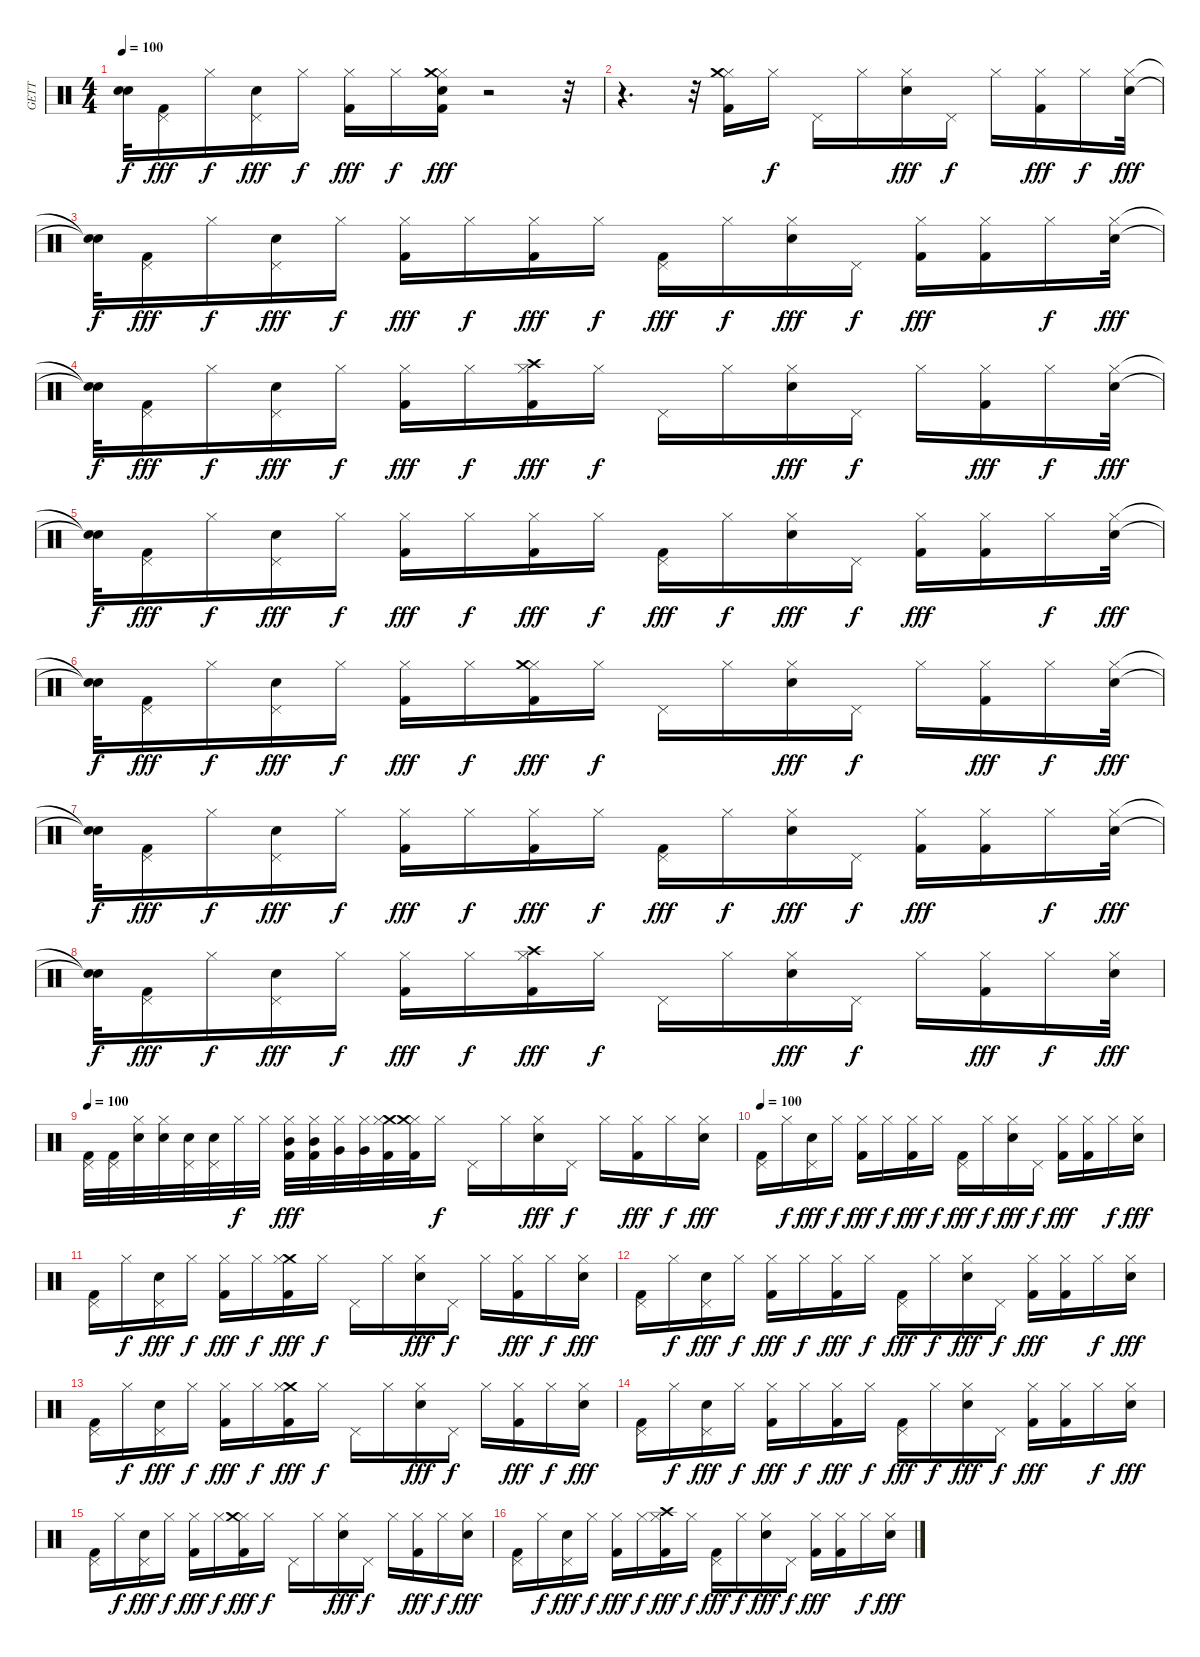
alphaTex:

\track ("GETT" "GETT") {instrument percussion}
\staff {score}
\articulation defaults
\ts (4 4)
\tempo 100
\clef neutral
\ks c
("Snare (hit)"{t} "Snare (hit)"{t}).32{dy f} ("Pedal Hi-Hat (hit)" "Kick (hit) 2").16{dy fff} "Hi-Hat (closed)".16{dy f} ("Snare (hit) 2" "Pedal Hi-Hat (hit)").16{dy fff} "Hi-Hat (closed)".16{dy f} ("Kick (hit) 2" "Hi-Hat (closed)").16{dy fff} "Hi-Hat (closed)".16{dy f} ("Hi-Hat (closed)" "Kick (hit) 2" "Crash medium (hit)" "Snare (hit) 2").16{dy fff} r.2 r.32 |
r.4{d} r.32 ("Hi-Hat (closed)" "Crash medium (hit)" "Kick (hit) 2").16 "Hi-Hat (closed)".16{dy f} "Pedal Hi-Hat (hit)".16 "Hi-Hat (closed)".16 ("Hi-Hat (closed)" "Snare (hit) 2").16{dy fff} "Pedal Hi-Hat (hit)".16{dy f} "Hi-Hat (closed)".16 ("Hi-Hat (closed)" "Kick (hit) 2").16{dy fff} "Hi-Hat (closed)".16{dy f} ("Hi-Hat (closed)" "Snare (hit) 2").32{dy fff} |
("Snare (hit)"{t} "Snare (hit)"{t}).32{dy f} ("Pedal Hi-Hat (hit)" "Kick (hit) 2").16{dy fff} "Hi-Hat (closed)".16{dy f} ("Pedal Hi-Hat (hit)" "Snare (hit) 2").16{dy fff} "Hi-Hat (closed)".16{dy f} ("Hi-Hat (closed)" "Kick (hit) 2").16{dy fff} "Hi-Hat (closed)".16{dy f} ("Kick (hit) 2" "Hi-Hat (closed)").16{dy fff} "Hi-Hat (closed)".16{dy f} ("Pedal Hi-Hat (hit)" "Kick (hit) 2").16{dy fff} "Hi-Hat (closed)".16{dy f} ("Hi-Hat (closed)" "Snare (hit) 2").16{dy fff} "Pedal Hi-Hat (hit)".16{dy f} ("Hi-Hat (closed)" "Kick (hit) 2").16{dy fff} ("Hi-Hat (closed)" "Kick (hit) 2").16 "Hi-Hat (closed)".16{dy f} ("Hi-Hat (closed)" "Snare (hit) 2").32{dy fff} |
("Snare (hit)"{t} "Snare (hit)"{t}).32{dy f} ("Pedal Hi-Hat (hit)" "Kick (hit) 2").16{dy fff} "Hi-Hat (closed)".16{dy f} ("Pedal Hi-Hat (hit)" "Snare (hit) 2").16{dy fff} "Hi-Hat (closed)".16{dy f} ("Hi-Hat (closed)" "Kick (hit) 2").16{dy fff} "Hi-Hat (closed)".16{dy f} ("Hi-Hat (closed)" "Crash high (hit)" "Kick (hit) 2").16{dy fff} "Hi-Hat (closed)".16{dy f} "Pedal Hi-Hat (hit)".16 "Hi-Hat (closed)".16 ("Hi-Hat (closed)" "Snare (hit) 2").16{dy fff} "Pedal Hi-Hat (hit)".16{dy f} "Hi-Hat (closed)".16 ("Hi-Hat (closed)" "Kick (hit) 2").16{dy fff} "Hi-Hat (closed)".16{dy f} ("Hi-Hat (closed)" "Snare (hit) 2").32{dy fff} |
("Snare (hit)"{t} "Snare (hit)"{t}).32{dy f} ("Pedal Hi-Hat (hit)" "Kick (hit) 2").16{dy fff} "Hi-Hat (closed)".16{dy f} ("Pedal Hi-Hat (hit)" "Snare (hit) 2").16{dy fff} "Hi-Hat (closed)".16{dy f} ("Hi-Hat (closed)" "Kick (hit) 2").16{dy fff} "Hi-Hat (closed)".16{dy f} ("Kick (hit) 2" "Hi-Hat (closed)").16{dy fff} "Hi-Hat (closed)".16{dy f} ("Kick (hit) 2" "Pedal Hi-Hat (hit)").16{dy fff} "Hi-Hat (closed)".16{dy f} ("Snare (hit) 2" "Hi-Hat (closed)").16{dy fff} "Pedal Hi-Hat (hit)".16{dy f} ("Hi-Hat (closed)" "Kick (hit) 2").16{dy fff} ("Kick (hit) 2" "Hi-Hat (closed)").16 "Hi-Hat (closed)".16{dy f} ("Hi-Hat (closed)" "Snare (hit) 2").32{dy fff} |
("Snare (hit)"{t} "Snare (hit)"{t}).32{dy f} ("Pedal Hi-Hat (hit)" "Kick (hit) 2").16{dy fff} "Hi-Hat (closed)".16{dy f} ("Pedal Hi-Hat (hit)" "Snare (hit) 2").16{dy fff} "Hi-Hat (closed)".16{dy f} ("Kick (hit) 2" "Hi-Hat (closed)").16{dy fff} "Hi-Hat (closed)".16{dy f} ("Hi-Hat (closed)" "Kick (hit) 2" "Crash medium (hit)").16{dy fff} "Hi-Hat (closed)".16{dy f} "Pedal Hi-Hat (hit)".16 "Hi-Hat (closed)".16 ("Hi-Hat (closed)" "Snare (hit) 2").16{dy fff} "Pedal Hi-Hat (hit)".16{dy f} "Hi-Hat (closed)".16 ("Kick (hit) 2" "Hi-Hat (closed)").16{dy fff} "Hi-Hat (closed)".16{dy f} ("Snare (hit) 2" "Hi-Hat (closed)").32{dy fff} |
("Snare (hit)"{t} "Snare (hit)"{t}).32{dy f} ("Pedal Hi-Hat (hit)" "Kick (hit) 2").16{dy fff} "Hi-Hat (closed)".16{dy f} ("Pedal Hi-Hat (hit)" "Snare (hit) 2").16{dy fff} "Hi-Hat (closed)".16{dy f} ("Hi-Hat (closed)" "Kick (hit) 2").16{dy fff} "Hi-Hat (closed)".16{dy f} ("Hi-Hat (closed)" "Kick (hit) 2").16{dy fff} "Hi-Hat (closed)".16{dy f} ("Pedal Hi-Hat (hit)" "Kick (hit) 2").16{dy fff} "Hi-Hat (closed)".16{dy f} ("Snare (hit) 2" "Hi-Hat (closed)").16{dy fff} "Pedal Hi-Hat (hit)".16{dy f} ("Hi-Hat (closed)" "Kick (hit) 2").16{dy fff} ("Kick (hit) 2" "Hi-Hat (closed)").16 "Hi-Hat (closed)".16{dy f} ("Snare (hit) 2" "Hi-Hat (closed)").32{dy fff} |
("Snare (hit)"{t} "Snare (hit)"{t}).32{dy f} ("Pedal Hi-Hat (hit)" "Kick (hit) 2").16{dy fff} "Hi-Hat (closed)".16{dy f} ("Snare (hit) 2" "Pedal Hi-Hat (hit)").16{dy fff} "Hi-Hat (closed)".16{dy f} ("Kick (hit) 2" "Hi-Hat (closed)").16{dy fff} "Hi-Hat (closed)".16{dy f} ("Hi-Hat (closed)" "Kick (hit) 2" "Crash high (hit)").16{dy fff} "Hi-Hat (closed)".16{dy f} "Pedal Hi-Hat (hit)".16 "Hi-Hat (closed)".16 ("Hi-Hat (closed)" "Snare (hit) 2").16{dy fff} "Pedal Hi-Hat (hit)".16{dy f} "Hi-Hat (closed)".16 ("Kick (hit) 2" "Hi-Hat (closed)").16{dy fff} "Hi-Hat (closed)".16{dy f} ("Snare (hit) 2" "Hi-Hat (closed)").32{dy fff} |
\tempo 100
("Pedal Hi-Hat (hit)" "Kick (hit) 2").32{volume 16} ("Pedal Hi-Hat (hit)" "Kick (hit) 2").32 ("Hi-Hat (closed)" "Snare (hit) 2").32 ("Hi-Hat (closed)" "Snare (hit) 2").32 ("Pedal Hi-Hat (hit)" "Snare (hit) 2").32 ("Pedal Hi-Hat (hit)" "Snare (hit) 2").32 "Hi-Hat (closed)".32{dy f} "Hi-Hat (closed)".32 ("Mid Tom (hit)" "Hi-Hat (closed)" "Kick (hit) 2").32{dy fff} ("Mid Tom (hit)" "Hi-Hat (closed)" "Kick (hit) 2").32 ("Very Low Tom (hit)" "Hi-Hat (closed)").32 ("Very Low Tom (hit)" "Hi-Hat (closed)").32 ("Kick (hit) 2" "Crash medium (hit)" "Hi-Hat (closed)").32 ("Hi-Hat (closed)" "Crash medium (hit)" "Kick (hit) 2").32 "Hi-Hat (closed)".16{dy f} "Pedal Hi-Hat (hit)".16 "Hi-Hat (closed)".16 ("Hi-Hat (closed)" "Snare (hit) 2").16{dy fff} "Pedal Hi-Hat (hit)".16{dy f} "Hi-Hat (closed)".16 ("Kick (hit) 2" "Hi-Hat (closed)").16{dy fff} "Hi-Hat (closed)".16{dy f} ("Snare (hit) 2" "Hi-Hat (closed)").16{dy fff} |
\tempo 100
("Pedal Hi-Hat (hit)" "Kick (hit) 2").16 "Hi-Hat (closed)".16{dy f} ("Pedal Hi-Hat (hit)" "Snare (hit) 2").16{dy fff} "Hi-Hat (closed)".16{dy f} ("Hi-Hat (closed)" "Kick (hit) 2").16{dy fff} "Hi-Hat (closed)".16{dy f} ("Kick (hit) 2" "Hi-Hat (closed)").16{dy fff} "Hi-Hat (closed)".16{dy f} ("Pedal Hi-Hat (hit)" "Kick (hit) 2").16{dy fff} "Hi-Hat (closed)".16{dy f} ("Hi-Hat (closed)" "Snare (hit) 2").16{dy fff} "Pedal Hi-Hat (hit)".16{dy f} ("Kick (hit) 2" "Hi-Hat (closed)").16{dy fff} ("Hi-Hat (closed)" "Kick (hit) 2").16 "Hi-Hat (closed)".16{dy f} ("Snare (hit) 2" "Hi-Hat (closed)").16{dy fff} |
("Kick (hit) 2" "Pedal Hi-Hat (hit)").16 "Hi-Hat (closed)".16{dy f} ("Snare (hit) 2" "Pedal Hi-Hat (hit)").16{dy fff} "Hi-Hat (closed)".16{dy f} ("Hi-Hat (closed)" "Kick (hit) 2").16{dy fff} "Hi-Hat (closed)".16{dy f} ("Kick (hit) 2" "Crash medium (hit)" "Hi-Hat (closed)").16{dy fff} "Hi-Hat (closed)".16{dy f} "Pedal Hi-Hat (hit)".16 "Hi-Hat (closed)".16 ("Hi-Hat (closed)" "Snare (hit) 2").16{dy fff} "Pedal Hi-Hat (hit)".16{dy f} "Hi-Hat (closed)".16 ("Kick (hit) 2" "Hi-Hat (closed)").16{dy fff} "Hi-Hat (closed)".16{dy f} ("Snare (hit) 2" "Hi-Hat (closed)").16{dy fff} |
("Pedal Hi-Hat (hit)" "Kick (hit) 2").16 "Hi-Hat (closed)".16{dy f} ("Pedal Hi-Hat (hit)" "Snare (hit) 2").16{dy fff} "Hi-Hat (closed)".16{dy f} ("Hi-Hat (closed)" "Kick (hit) 2").16{dy fff} "Hi-Hat (closed)".16{dy f} ("Kick (hit) 2" "Hi-Hat (closed)").16{dy fff} "Hi-Hat (closed)".16{dy f} ("Kick (hit) 2" "Pedal Hi-Hat (hit)").16{dy fff} "Hi-Hat (closed)".16{dy f} ("Snare (hit) 2" "Hi-Hat (closed)").16{dy fff} "Pedal Hi-Hat (hit)".16{dy f} ("Kick (hit) 2" "Hi-Hat (closed)").16{dy fff} ("Kick (hit) 2" "Hi-Hat (closed)").16 "Hi-Hat (closed)".16{dy f} ("Snare (hit) 2" "Hi-Hat (closed)").16{dy fff} |
("Pedal Hi-Hat (hit)" "Kick (hit) 2").16 "Hi-Hat (closed)".16{dy f} ("Pedal Hi-Hat (hit)" "Snare (hit) 2").16{dy fff} "Hi-Hat (closed)".16{dy f} ("Kick (hit) 2" "Hi-Hat (closed)").16{dy fff} "Hi-Hat (closed)".16{dy f} ("Crash medium (hit)" "Hi-Hat (closed)" "Kick (hit) 2").16{dy fff} "Hi-Hat (closed)".16{dy f} "Pedal Hi-Hat (hit)".16 "Hi-Hat (closed)".16 ("Hi-Hat (closed)" "Snare (hit) 2").16{dy fff} "Pedal Hi-Hat (hit)".16{dy f} "Hi-Hat (closed)".16 ("Hi-Hat (closed)" "Kick (hit) 2").16{dy fff} "Hi-Hat (closed)".16{dy f} ("Hi-Hat (closed)" "Snare (hit) 2").16{dy fff} |
("Pedal Hi-Hat (hit)" "Kick (hit) 2").16 "Hi-Hat (closed)".16{dy f} ("Pedal Hi-Hat (hit)" "Snare (hit) 2").16{dy fff} "Hi-Hat (closed)".16{dy f} ("Hi-Hat (closed)" "Kick (hit) 2").16{dy fff} "Hi-Hat (closed)".16{dy f} ("Kick (hit) 2" "Hi-Hat (closed)").16{dy fff} "Hi-Hat (closed)".16{dy f} ("Pedal Hi-Hat (hit)" "Kick (hit) 2").16{dy fff} "Hi-Hat (closed)".16{dy f} ("Hi-Hat (closed)" "Snare (hit) 2").16{dy fff} "Pedal Hi-Hat (hit)".16{dy f} ("Hi-Hat (closed)" "Kick (hit) 2").16{dy fff} ("Kick (hit) 2" "Hi-Hat (closed)").16 "Hi-Hat (closed)".16{dy f} ("Hi-Hat (closed)" "Snare (hit) 2").16{dy fff} |
("Pedal Hi-Hat (hit)" "Kick (hit) 2").16 "Hi-Hat (closed)".16{dy f} ("Pedal Hi-Hat (hit)" "Snare (hit) 2").16{dy fff} "Hi-Hat (closed)".16{dy f} ("Hi-Hat (closed)" "Kick (hit) 2").16{dy fff} "Hi-Hat (closed)".16{dy f} ("Kick (hit) 2" "Hi-Hat (closed)" "Crash medium (hit)").16{dy fff} "Hi-Hat (closed)".16{dy f} "Pedal Hi-Hat (hit)".16 "Hi-Hat (closed)".16 ("Hi-Hat (closed)" "Snare (hit) 2").16{dy fff} "Pedal Hi-Hat (hit)".16{dy f} "Hi-Hat (closed)".16 ("Hi-Hat (closed)" "Kick (hit) 2").16{dy fff} "Hi-Hat (closed)".16{dy f} ("Hi-Hat (closed)" "Snare (hit) 2").16{dy fff} |
("Pedal Hi-Hat (hit)" "Kick (hit) 2").16 "Hi-Hat (closed)".16{dy f} ("Pedal Hi-Hat (hit)" "Snare (hit) 2").16{dy fff} "Hi-Hat (closed)".16{dy f} ("Hi-Hat (closed)" "Kick (hit) 2").16{dy fff} "Hi-Hat (closed)".16{dy f} ("Crash high (hit)" "Hi-Hat (closed)" "Kick (hit) 2").16{dy fff} "Hi-Hat (closed)".16{dy f} ("Pedal Hi-Hat (hit)" "Kick (hit) 2").16{dy fff} "Hi-Hat (closed)".16{dy f} ("Hi-Hat (closed)" "Snare (hit) 2").16{dy fff} "Pedal Hi-Hat (hit)".16{dy f} ("Kick (hit) 2" "Hi-Hat (closed)").16{dy fff} ("Kick (hit) 2" "Hi-Hat (closed)").16 "Hi-Hat (closed)".16{dy f} ("Hi-Hat (closed)" "Snare (hit) 2").16{dy fff}
